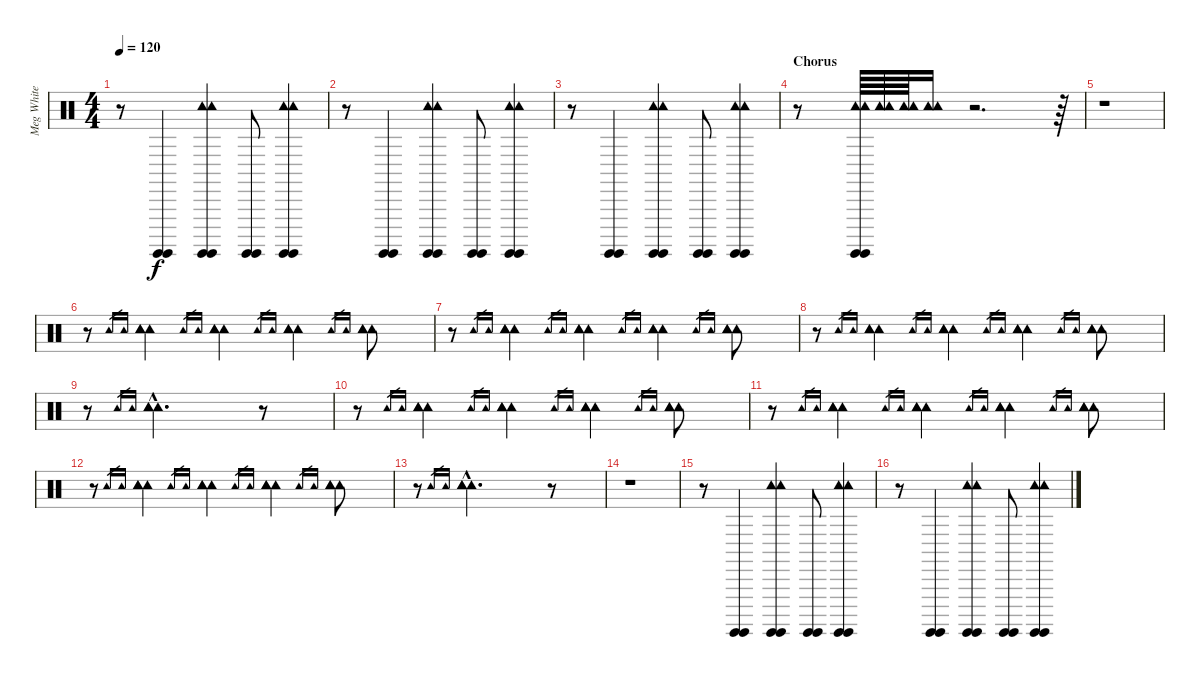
\track ("Meg White" "Meg White") {instrument percussion}
\staff {score}
\articulation defaults
\ts (4 4)
\tempo 120
\clef neutral
\ks c
r.8{dy f} ("Surdo (hit)" "Surdo (hit)").4 ("Surdo (hit)" "Surdo (hit)" "Tambourine (hit)" "Tambourine (hit)").4 ("Surdo (hit)" "Surdo (hit)").8 ("Surdo (hit)" "Surdo (hit)" "Tambourine (hit)" "Tambourine (hit)").4 |
r.8 ("Surdo (hit)" "Surdo (hit)").4 ("Surdo (hit)" "Surdo (hit)" "Tambourine (hit)" "Tambourine (hit)").4 ("Surdo (hit)" "Surdo (hit)").8 ("Surdo (hit)" "Surdo (hit)" "Tambourine (hit)" "Tambourine (hit)").4 |
r.8 ("Surdo (hit)" "Surdo (hit)").4 ("Surdo (hit)" "Surdo (hit)" "Tambourine (hit)" "Tambourine (hit)").4 ("Surdo (hit)" "Surdo (hit)").8 ("Surdo (hit)" "Surdo (hit)" "Tambourine (hit)" "Tambourine (hit)").4 |
\section ("" "Chorus")
r.8 ("Surdo (hit)" "Surdo (hit)" "Tambourine (hit)" "Tambourine (hit)").64 ("Tambourine (hit)" "Tambourine (hit)").64 ("Tambourine (hit)" "Tambourine (hit)").64 ("Tambourine (hit)" "Tambourine (hit)").16 r.2{d} r.64 |
r.1 |
r.8 "Tambourine (hit)".16{gr} "Tambourine (hit)".16{gr} ("Tambourine (hit)" "Tambourine (hit)" "Tambourine (hit)").4 "Tambourine (hit)".16{gr} "Tambourine (hit)".16{gr} ("Tambourine (hit)" "Tambourine (hit)" "Tambourine (hit)").4 "Tambourine (hit)".16{gr} "Tambourine (hit)".16{gr} ("Tambourine (hit)" "Tambourine (hit)" "Tambourine (hit)").4 "Tambourine (hit)".16{gr} "Tambourine (hit)".16{gr} ("Tambourine (hit)" "Tambourine (hit)" "Tambourine (hit)").8 |
r.8 "Tambourine (hit)".16{gr} "Tambourine (hit)".16{gr} ("Tambourine (hit)" "Tambourine (hit)" "Tambourine (hit)").4 "Tambourine (hit)".16{gr} "Tambourine (hit)".16{gr} ("Tambourine (hit)" "Tambourine (hit)" "Tambourine (hit)").4 "Tambourine (hit)".16{gr} "Tambourine (hit)".16{gr} ("Tambourine (hit)" "Tambourine (hit)" "Tambourine (hit)").4 "Tambourine (hit)".16{gr} "Tambourine (hit)".16{gr} ("Tambourine (hit)" "Tambourine (hit)" "Tambourine (hit)").8 |
r.8 "Tambourine (hit)".16{gr} "Tambourine (hit)".16{gr} ("Tambourine (hit)" "Tambourine (hit)" "Tambourine (hit)").4 "Tambourine (hit)".16{gr} "Tambourine (hit)".16{gr} ("Tambourine (hit)" "Tambourine (hit)" "Tambourine (hit)").4 "Tambourine (hit)".16{gr} "Tambourine (hit)".16{gr} ("Tambourine (hit)" "Tambourine (hit)" "Tambourine (hit)").4 "Tambourine (hit)".16{gr} "Tambourine (hit)".16{gr} ("Tambourine (hit)" "Tambourine (hit)" "Tambourine (hit)").8 |
r.8 "Tambourine (hit)".16{gr} "Tambourine (hit)".16{gr} ("Tambourine (hit)"{hac} "Tambourine (hit)"{hac} "Tambourine (hit)"{hac}).2{d} r.8 |
r.8 "Tambourine (hit)".16{gr} "Tambourine (hit)".16{gr} ("Tambourine (hit)" "Tambourine (hit)" "Tambourine (hit)").4 "Tambourine (hit)".16{gr} "Tambourine (hit)".16{gr} ("Tambourine (hit)" "Tambourine (hit)" "Tambourine (hit)").4 "Tambourine (hit)".16{gr} "Tambourine (hit)".16{gr} ("Tambourine (hit)" "Tambourine (hit)" "Tambourine (hit)").4 "Tambourine (hit)".16{gr} "Tambourine (hit)".16{gr} ("Tambourine (hit)" "Tambourine (hit)" "Tambourine (hit)").8 |
r.8 "Tambourine (hit)".16{gr} "Tambourine (hit)".16{gr} ("Tambourine (hit)" "Tambourine (hit)" "Tambourine (hit)").4 "Tambourine (hit)".16{gr} "Tambourine (hit)".16{gr} ("Tambourine (hit)" "Tambourine (hit)" "Tambourine (hit)").4 "Tambourine (hit)".16{gr} "Tambourine (hit)".16{gr} ("Tambourine (hit)" "Tambourine (hit)" "Tambourine (hit)").4 "Tambourine (hit)".16{gr} "Tambourine (hit)".16{gr} ("Tambourine (hit)" "Tambourine (hit)" "Tambourine (hit)").8 |
r.8 "Tambourine (hit)".16{gr} "Tambourine (hit)".16{gr} ("Tambourine (hit)" "Tambourine (hit)" "Tambourine (hit)").4 "Tambourine (hit)".16{gr} "Tambourine (hit)".16{gr} ("Tambourine (hit)" "Tambourine (hit)" "Tambourine (hit)").4 "Tambourine (hit)".16{gr} "Tambourine (hit)".16{gr} ("Tambourine (hit)" "Tambourine (hit)" "Tambourine (hit)").4 "Tambourine (hit)".16{gr} "Tambourine (hit)".16{gr} ("Tambourine (hit)" "Tambourine (hit)" "Tambourine (hit)").8 |
r.8 "Tambourine (hit)".16{gr} "Tambourine (hit)".16{gr} ("Tambourine (hit)"{hac} "Tambourine (hit)"{hac} "Tambourine (hit)"{hac}).2{d} r.8 |
r.1 |
r.8 ("Surdo (hit)" "Surdo (hit)").4 ("Surdo (hit)" "Surdo (hit)" "Tambourine (hit)" "Tambourine (hit)").4 ("Surdo (hit)" "Surdo (hit)").8 ("Surdo (hit)" "Surdo (hit)" "Tambourine (hit)" "Tambourine (hit)").4 |
r.8 ("Surdo (hit)" "Surdo (hit)").4 ("Surdo (hit)" "Surdo (hit)" "Tambourine (hit)" "Tambourine (hit)").4 ("Surdo (hit)" "Surdo (hit)").8 ("Surdo (hit)" "Surdo (hit)" "Tambourine (hit)" "Tambourine (hit)").4
